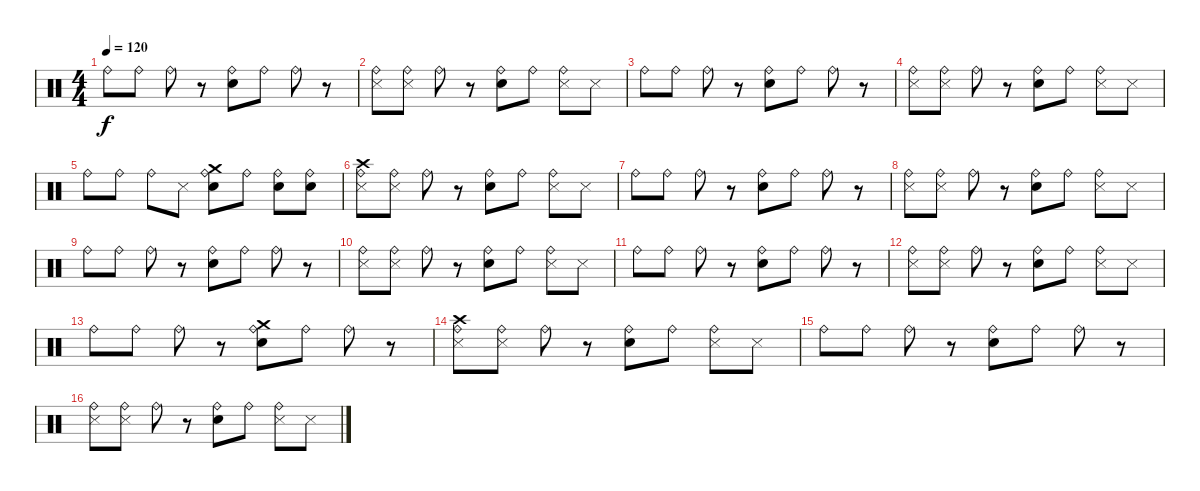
\track "" {instrument percussion}
\staff {score}
\articulation defaults
\ts (4 4)
\tempo 120
\clef neutral
\ks c "Ride (bell)".8{dy f} "Ride (bell)".8 "Ride (bell)".8
r.8 ("Electric Snare (hit)" "Ride (bell)").8 "Ride (bell)".8 "Ride (bell)".8 r.8 |
("Metronome (hit)" "Ride (bell)").8 ("Metronome (hit)" "Ride (bell)").8 "Ride (bell)".8 r.8 ("Electric Snare (hit)" "Ride (bell)").8 "Ride (bell)".8 ("Metronome (hit)" "Ride (bell)").8 "Metronome (hit)".8 |
"Ride (bell)".8 "Ride (bell)".8 "Ride (bell)".8 r.8 ("Electric Snare (hit)" "Ride (bell)").8 "Ride (bell)".8 "Ride (bell)".8 r.8 |
("Metronome (hit)" "Ride (bell)").8 ("Metronome (hit)" "Ride (bell)").8 "Ride (bell)".8 r.8 ("Electric Snare (hit)" "Ride (bell)").8 "Ride (bell)".8 ("Metronome (hit)" "Ride (bell)").8 "Metronome (hit)".8 |
"Ride (bell)".8 "Ride (bell)".8 "Ride (bell)".8 "Metronome (hit)".8 ("Metronome (bell)" "Ride (bell)" "Crash medium (hit)").8 "Ride (bell)".8 ("Metronome (bell)" "Ride (bell)").8 ("Metronome (bell)" "Ride (bell)").8 |
("Metronome (hit)" "Crash high (hit)" "Ride (bell)").8 ("Metronome (hit)" "Ride (bell)").8 "Ride (bell)".8 r.8 ("Electric Snare (hit)" "Ride (bell)").8 "Ride (bell)".8 ("Metronome (hit)" "Ride (bell)").8 "Metronome (hit)".8 |
"Ride (bell)".8 "Ride (bell)".8 "Ride (bell)".8 r.8 ("Electric Snare (hit)" "Ride (bell)").8 "Ride (bell)".8 "Ride (bell)".8 r.8 |
("Metronome (hit)" "Ride (bell)").8 ("Metronome (hit)" "Ride (bell)").8 "Ride (bell)".8 r.8 ("Electric Snare (hit)" "Ride (bell)").8 "Ride (bell)".8 ("Metronome (hit)" "Ride (bell)").8 "Metronome (hit)".8 |
"Ride (bell)".8 "Ride (bell)".8 "Ride (bell)".8 r.8 ("Electric Snare (hit)" "Ride (bell)").8 "Ride (bell)".8 "Ride (bell)".8 r.8 |
("Metronome (hit)" "Ride (bell)").8 ("Metronome (hit)" "Ride (bell)").8 "Ride (bell)".8 r.8 ("Electric Snare (hit)" "Ride (bell)").8 "Ride (bell)".8 ("Metronome (hit)" "Ride (bell)").8 "Metronome (hit)".8 |
"Ride (bell)".8 "Ride (bell)".8 "Ride (bell)".8 r.8 ("Electric Snare (hit)" "Ride (bell)").8 "Ride (bell)".8 "Ride (bell)".8 r.8 |
("Metronome (hit)" "Ride (bell)").8 ("Metronome (hit)" "Ride (bell)").8 "Ride (bell)".8 r.8 ("Electric Snare (hit)" "Ride (bell)").8 "Ride (bell)".8 ("Metronome (hit)" "Ride (bell)").8 "Metronome (hit)".8 |
"Ride (bell)".8 "Ride (bell)".8 "Ride (bell)".8 r.8 ("Electric Snare (hit)" "Ride (bell)" "Crash medium (hit)").8 "Ride (bell)".8 "Ride (bell)".8 r.8 |
("Metronome (hit)" "Ride (bell)" "Crash high (hit)").8 ("Metronome (hit)" "Ride (bell)").8 "Ride (bell)".8 r.8 ("Electric Snare (hit)" "Ride (bell)").8 "Ride (bell)".8 ("Metronome (hit)" "Ride (bell)").8 "Metronome (hit)".8 |
"Ride (bell)".8 "Ride (bell)".8 "Ride (bell)".8 r.8 ("Electric Snare (hit)" "Ride (bell)").8 "Ride (bell)".8 "Ride (bell)".8 r.8 |
("Metronome (hit)" "Ride (bell)").8 ("Metronome (hit)" "Ride (bell)").8 "Ride (bell)".8 r.8 ("Electric Snare (hit)" "Ride (bell)").8 "Ride (bell)".8 ("Metronome (hit)" "Ride (bell)").8 "Metronome (hit)".8
